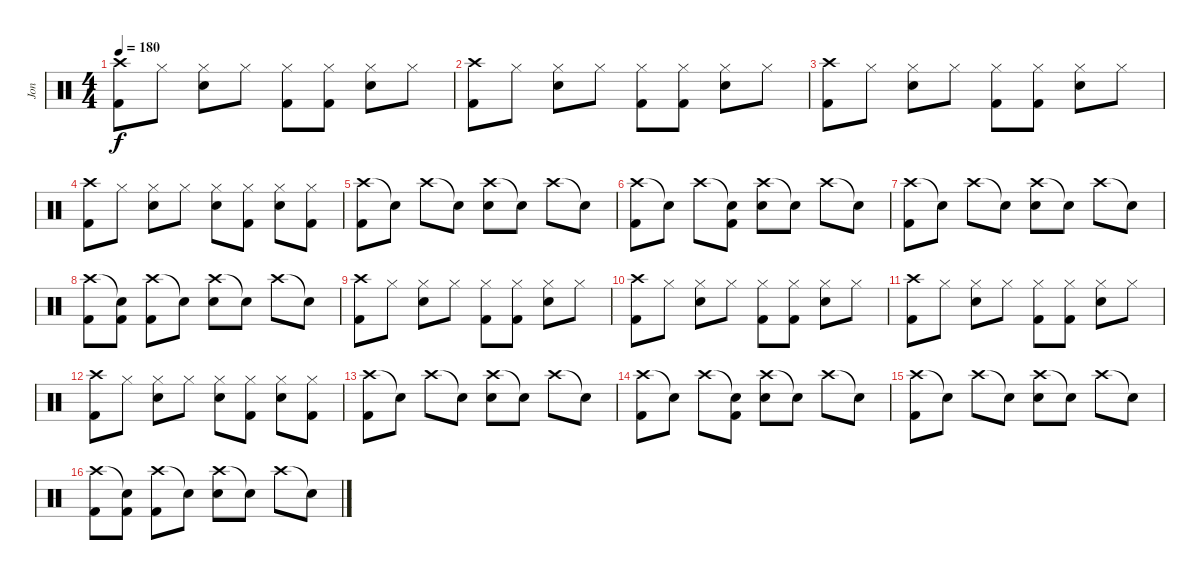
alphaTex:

\track ("Jon" "Jon") {instrument percussion}
\staff {score}
\articulation defaults
\ts (4 4)
\tempo 180
\clef neutral
\ks c
("Crash high (hit)" "Kick (hit) 2").8{dy f} "Hi-Hat (closed)".8 ("Hi-Hat (closed)" "Snare (hit) 2").8 "Hi-Hat (closed)".8 ("Hi-Hat (closed)" "Kick (hit) 2").8 ("Hi-Hat (closed)" "Kick (hit) 2").8 ("Hi-Hat (closed)" "Snare (hit) 2").8 "Hi-Hat (closed)".8 |
("Crash high (hit)" "Kick (hit) 2").8 "Hi-Hat (closed)".8 ("Hi-Hat (closed)" "Snare (hit) 2").8 "Hi-Hat (closed)".8 ("Hi-Hat (closed)" "Kick (hit) 2").8 ("Hi-Hat (closed)" "Kick (hit) 2").8 ("Hi-Hat (closed)" "Snare (hit) 2").8 "Hi-Hat (closed)".8 |
("Crash high (hit)" "Kick (hit) 2").8 "Hi-Hat (closed)".8 ("Hi-Hat (closed)" "Snare (hit) 2").8 "Hi-Hat (closed)".8 ("Hi-Hat (closed)" "Kick (hit) 2").8 ("Hi-Hat (closed)" "Kick (hit) 2").8 ("Hi-Hat (closed)" "Snare (hit) 2").8 "Hi-Hat (closed)".8 |
("Crash high (hit)" "Kick (hit) 2").8 "Hi-Hat (closed)".8 ("Hi-Hat (closed)" "Snare (hit) 2").8 "Hi-Hat (closed)".8 ("Hi-Hat (closed)" "Snare (hit) 2").8 ("Hi-Hat (closed)" "Kick (hit) 2").8 ("Hi-Hat (closed)" "Snare (hit) 2").8 ("Hi-Hat (closed)" "Kick (hit) 2").8 |
("Crash high (hit)" "Kick (hit) 2").8 "Snare (hit)"{t}.8 "Crash high (hit)".8 "Snare (hit)"{t}.8 ("Crash high (hit)" "Snare (hit) 2").8 "Snare (hit)"{t}.8 "Crash high (hit)".8 "Snare (hit)"{t}.8 |
("Crash high (hit)" "Kick (hit) 2").8 "Snare (hit)"{t}.8 "Crash high (hit)".8 ("Snare (hit)"{t} "Kick (hit) 2").8 ("Crash high (hit)" "Snare (hit) 2").8 "Snare (hit)"{t}.8 "Crash high (hit)".8 "Snare (hit)"{t}.8 |
("Crash high (hit)" "Kick (hit) 2").8 "Snare (hit)"{t}.8 "Crash high (hit)".8 "Snare (hit)"{t}.8 ("Crash high (hit)" "Snare (hit) 2").8 "Snare (hit)"{t}.8 "Crash high (hit)".8 "Snare (hit)"{t}.8 |
("Crash high (hit)" "Kick (hit) 2").8 ("Snare (hit)"{t} "Kick (hit) 2").8 ("Crash high (hit)" "Kick (hit) 2").8 "Snare (hit)"{t}.8 ("Crash high (hit)" "Snare (hit) 2").8 "Snare (hit)"{t}.8 "Crash high (hit)".8 "Snare (hit)"{t}.8 |
("Crash high (hit)" "Kick (hit) 2").8 "Hi-Hat (closed)".8 ("Hi-Hat (closed)" "Snare (hit) 2").8 "Hi-Hat (closed)".8 ("Hi-Hat (closed)" "Kick (hit) 2").8 ("Hi-Hat (closed)" "Kick (hit) 2").8 ("Hi-Hat (closed)" "Snare (hit) 2").8 "Hi-Hat (closed)".8 |
("Crash high (hit)" "Kick (hit) 2").8 "Hi-Hat (closed)".8 ("Hi-Hat (closed)" "Snare (hit) 2").8 "Hi-Hat (closed)".8 ("Hi-Hat (closed)" "Kick (hit) 2").8 ("Hi-Hat (closed)" "Kick (hit) 2").8 ("Hi-Hat (closed)" "Snare (hit) 2").8 "Hi-Hat (closed)".8 |
("Crash high (hit)" "Kick (hit) 2").8 "Hi-Hat (closed)".8 ("Hi-Hat (closed)" "Snare (hit) 2").8 "Hi-Hat (closed)".8 ("Hi-Hat (closed)" "Kick (hit) 2").8 ("Hi-Hat (closed)" "Kick (hit) 2").8 ("Hi-Hat (closed)" "Snare (hit) 2").8 "Hi-Hat (closed)".8 |
("Crash high (hit)" "Kick (hit) 2").8 "Hi-Hat (closed)".8 ("Hi-Hat (closed)" "Snare (hit) 2").8 "Hi-Hat (closed)".8 ("Hi-Hat (closed)" "Snare (hit) 2").8 ("Hi-Hat (closed)" "Kick (hit) 2").8 ("Hi-Hat (closed)" "Snare (hit) 2").8 ("Hi-Hat (closed)" "Kick (hit) 2").8 |
("Crash high (hit)" "Kick (hit) 2").8 "Snare (hit)"{t}.8 "Crash high (hit)".8 "Snare (hit)"{t}.8 ("Crash high (hit)" "Snare (hit) 2").8 "Snare (hit)"{t}.8 "Crash high (hit)".8 "Snare (hit)"{t}.8 |
("Crash high (hit)" "Kick (hit) 2").8 "Snare (hit)"{t}.8 "Crash high (hit)".8 ("Snare (hit)"{t} "Kick (hit) 2").8 ("Crash high (hit)" "Snare (hit) 2").8 "Snare (hit)"{t}.8 "Crash high (hit)".8 "Snare (hit)"{t}.8 |
("Crash high (hit)" "Kick (hit) 2").8 "Snare (hit)"{t}.8 "Crash high (hit)".8 "Snare (hit)"{t}.8 ("Crash high (hit)" "Snare (hit) 2").8 "Snare (hit)"{t}.8 "Crash high (hit)".8 "Snare (hit)"{t}.8 |
("Crash high (hit)" "Kick (hit) 2").8 ("Snare (hit)"{t} "Kick (hit) 2").8 ("Crash high (hit)" "Kick (hit) 2").8 "Snare (hit)"{t}.8 ("Crash high (hit)" "Snare (hit) 2").8 "Snare (hit)"{t}.8 "Crash high (hit)".8 "Snare (hit)"{t}.8
